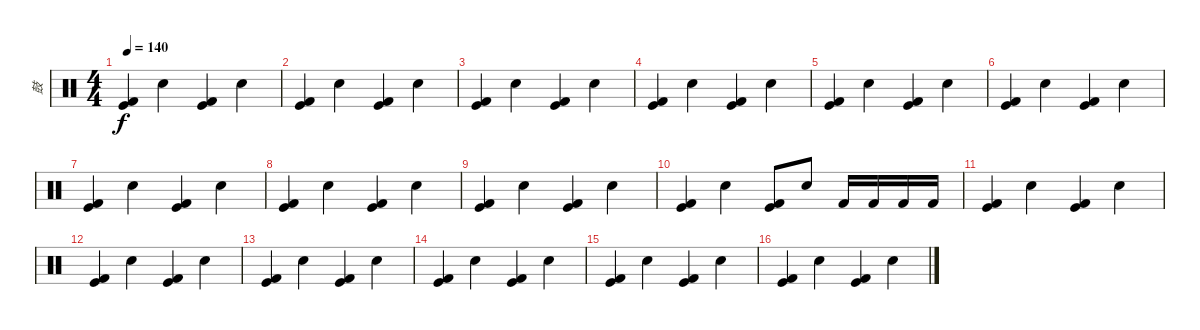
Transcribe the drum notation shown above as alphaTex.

\track ("鼓" "鼓") {instrument percussion}
\staff {score}
\articulation defaults
\ts (4 4)
\tempo 140
\clef neutral
\ks c
("Kick (hit)" "Kick (hit) 2").4{dy f} "Snare (hit) 2".4 ("Kick (hit)" "Kick (hit) 2").4 "Snare (hit) 2".4 |
("Kick (hit)" "Kick (hit) 2").4 "Snare (hit) 2".4 ("Kick (hit)" "Kick (hit) 2").4 "Snare (hit) 2".4 |
("Kick (hit)" "Kick (hit) 2").4 "Snare (hit) 2".4 ("Kick (hit)" "Kick (hit) 2").4 "Snare (hit) 2".4 |
("Kick (hit)" "Kick (hit) 2").4 "Snare (hit) 2".4 ("Kick (hit)" "Kick (hit) 2").4 "Snare (hit) 2".4 |
("Kick (hit)" "Kick (hit) 2").4 "Snare (hit) 2".4 ("Kick (hit)" "Kick (hit) 2").4 "Snare (hit) 2".4 |
("Kick (hit)" "Kick (hit) 2").4 "Snare (hit) 2".4 ("Kick (hit)" "Kick (hit) 2").4 "Snare (hit) 2".4 |
("Kick (hit)" "Kick (hit) 2").4 "Snare (hit) 2".4 ("Kick (hit)" "Kick (hit) 2").4 "Snare (hit) 2".4 |
("Kick (hit)" "Kick (hit) 2").4 "Snare (hit) 2".4 ("Kick (hit)" "Kick (hit) 2").4 "Snare (hit) 2".4 |
("Kick (hit)" "Kick (hit) 2").4 "Snare (hit) 2".4 ("Kick (hit)" "Kick (hit) 2").4 "Snare (hit) 2".4 |
("Kick (hit)" "Kick (hit) 2").4 "Snare (hit) 2".4 ("Kick (hit)" "Kick (hit) 2").8 "Snare (hit) 2".8 "Kick (hit) 2".16 "Kick (hit) 2".16 "Kick (hit) 2".16 "Kick (hit) 2".16 |
("Kick (hit)" "Kick (hit) 2").4 "Snare (hit) 2".4 ("Kick (hit)" "Kick (hit) 2").4 "Snare (hit) 2".4 |
("Kick (hit)" "Kick (hit) 2").4 "Snare (hit) 2".4 ("Kick (hit)" "Kick (hit) 2").4 "Snare (hit) 2".4 |
("Kick (hit)" "Kick (hit) 2").4 "Snare (hit) 2".4 ("Kick (hit)" "Kick (hit) 2").4 "Snare (hit) 2".4 |
("Kick (hit)" "Kick (hit) 2").4 "Snare (hit) 2".4 ("Kick (hit)" "Kick (hit) 2").4 "Snare (hit) 2".4 |
("Kick (hit)" "Kick (hit) 2").4 "Snare (hit) 2".4 ("Kick (hit)" "Kick (hit) 2").4 "Snare (hit) 2".4 |
("Kick (hit)" "Kick (hit) 2").4 "Snare (hit) 2".4 ("Kick (hit)" "Kick (hit) 2").4 "Snare (hit) 2".4
